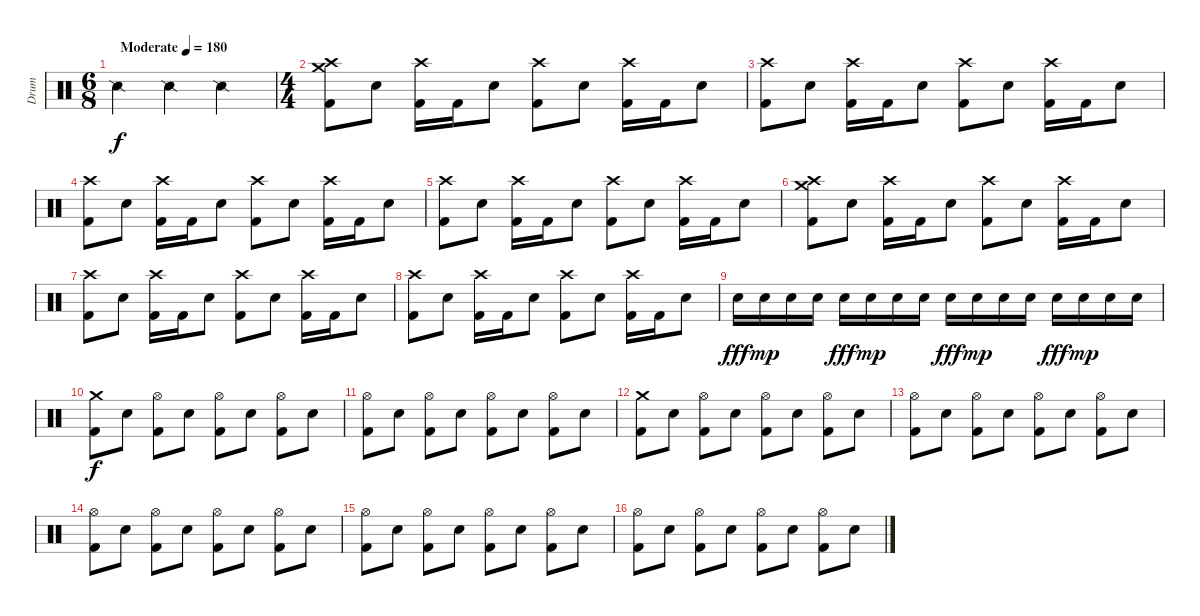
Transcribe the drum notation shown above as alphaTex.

\track ("Drum" "Drum") {instrument percussion}
\staff {score}
\articulation defaults
\ts (6 8)
\tempo (180 "Moderate")
\clef neutral
\ks c "Snare (side stick) 2".4{dy f} "Snare (side stick) 2".4 "Snare (side stick) 2".4
|
\ts (4 4)
("Crash high (hit)" "Crash medium (hit)" "Kick (hit) 2").8 "Electric Snare (hit)".8 ("Crash high (hit)" "Kick (hit) 2").16 "Kick (hit) 2".16 "Electric Snare (hit)".8 ("Crash high (hit)" "Kick (hit) 2").8 "Electric Snare (hit)".8 ("Crash high (hit)" "Kick (hit) 2").16 "Kick (hit) 2".16 "Electric Snare (hit)".8 |
("Crash high (hit)" "Kick (hit) 2").8 "Electric Snare (hit)".8 ("Crash high (hit)" "Kick (hit) 2").16 "Kick (hit) 2".16 "Electric Snare (hit)".8 ("Crash high (hit)" "Kick (hit) 2").8 "Electric Snare (hit)".8 ("Crash high (hit)" "Kick (hit) 2").16 "Kick (hit) 2".16 "Electric Snare (hit)".8 |
("Crash high (hit)" "Kick (hit) 2").8 "Electric Snare (hit)".8 ("Crash high (hit)" "Kick (hit) 2").16 "Kick (hit) 2".16 "Electric Snare (hit)".8 ("Crash high (hit)" "Kick (hit) 2").8 "Electric Snare (hit)".8 ("Crash high (hit)" "Kick (hit) 2").16 "Kick (hit) 2".16 "Electric Snare (hit)".8 |
("Crash high (hit)" "Kick (hit) 2").8 "Electric Snare (hit)".8 ("Crash high (hit)" "Kick (hit) 2").16 "Kick (hit) 2".16 "Electric Snare (hit)".8 ("Crash high (hit)" "Kick (hit) 2").8 "Electric Snare (hit)".8 ("Crash high (hit)" "Kick (hit) 2").16 "Kick (hit) 2".16 "Electric Snare (hit)".8 |
("Crash high (hit)" "Crash medium (hit)" "Kick (hit) 2").8 "Electric Snare (hit)".8 ("Crash high (hit)" "Kick (hit) 2").16 "Kick (hit) 2".16 "Electric Snare (hit)".8 ("Crash high (hit)" "Kick (hit) 2").8 "Electric Snare (hit)".8 ("Crash high (hit)" "Kick (hit) 2").16 "Kick (hit) 2".16 "Electric Snare (hit)".8 |
("Crash high (hit)" "Kick (hit) 2").8 "Electric Snare (hit)".8 ("Crash high (hit)" "Kick (hit) 2").16 "Kick (hit) 2".16 "Electric Snare (hit)".8 ("Crash high (hit)" "Kick (hit) 2").8 "Electric Snare (hit)".8 ("Crash high (hit)" "Kick (hit) 2").16 "Kick (hit) 2".16 "Electric Snare (hit)".8 |
("Crash high (hit)" "Kick (hit) 2").8 "Electric Snare (hit)".8 ("Crash high (hit)" "Kick (hit) 2").16 "Kick (hit) 2".16 "Electric Snare (hit)".8 ("Crash high (hit)" "Kick (hit) 2").8 "Electric Snare (hit)".8 ("Crash high (hit)" "Kick (hit) 2").16 "Kick (hit) 2".16 "Electric Snare (hit)".8 |
"Electric Snare (hit)".16{dy fff} "Electric Snare (hit)".16{dy mp} "Electric Snare (hit)".16 "Electric Snare (hit)".16 "Electric Snare (hit)".16{dy fff} "Electric Snare (hit)".16{dy mp} "Electric Snare (hit)".16 "Electric Snare (hit)".16 "Electric Snare (hit)".16{dy fff} "Electric Snare (hit)".16{dy mp} "Electric Snare (hit)".16 "Electric Snare (hit)".16 "Electric Snare (hit)".16{dy fff} "Electric Snare (hit)".16{dy mp} "Electric Snare (hit)".16 "Electric Snare (hit)".16 |
("Crash medium (hit)" "Kick (hit) 2").8{dy f} "Electric Snare (hit)".8 ("Hi-Hat (open)" "Kick (hit) 2").8 "Electric Snare (hit)".8 ("Hi-Hat (open)" "Kick (hit) 2").8 "Electric Snare (hit)".8 ("Hi-Hat (open)" "Kick (hit) 2").8 "Electric Snare (hit)".8 |
("Hi-Hat (open)" "Kick (hit) 2").8 "Electric Snare (hit)".8 ("Hi-Hat (open)" "Kick (hit) 2").8 "Electric Snare (hit)".8 ("Hi-Hat (open)" "Kick (hit) 2").8 "Electric Snare (hit)".8 ("Hi-Hat (open)" "Kick (hit) 2").8 "Electric Snare (hit)".8 |
("Crash medium (hit)" "Kick (hit) 2").8 "Electric Snare (hit)".8 ("Hi-Hat (open)" "Kick (hit) 2").8 "Electric Snare (hit)".8 ("Hi-Hat (open)" "Kick (hit) 2").8 "Electric Snare (hit)".8 ("Hi-Hat (open)" "Kick (hit) 2").8 "Electric Snare (hit)".8 |
("Hi-Hat (open)" "Kick (hit) 2").8 "Electric Snare (hit)".8 ("Hi-Hat (open)" "Kick (hit) 2").8 "Electric Snare (hit)".8 ("Hi-Hat (open)" "Kick (hit) 2").8 "Electric Snare (hit)".8 ("Hi-Hat (open)" "Kick (hit) 2").8 "Electric Snare (hit)".8 |
("Hi-Hat (open)" "Kick (hit) 2").8 "Electric Snare (hit)".8 ("Hi-Hat (open)" "Kick (hit) 2").8 "Electric Snare (hit)".8 ("Hi-Hat (open)" "Kick (hit) 2").8 "Electric Snare (hit)".8 ("Hi-Hat (open)" "Kick (hit) 2").8 "Electric Snare (hit)".8 |
("Hi-Hat (open)" "Kick (hit) 2").8 "Electric Snare (hit)".8 ("Hi-Hat (open)" "Kick (hit) 2").8 "Electric Snare (hit)".8 ("Hi-Hat (open)" "Kick (hit) 2").8 "Electric Snare (hit)".8 ("Hi-Hat (open)" "Kick (hit) 2").8 "Electric Snare (hit)".8 |
("Hi-Hat (open)" "Kick (hit) 2").8 "Electric Snare (hit)".8 ("Hi-Hat (open)" "Kick (hit) 2").8 "Electric Snare (hit)".8 ("Hi-Hat (open)" "Kick (hit) 2").8 "Electric Snare (hit)".8 ("Hi-Hat (open)" "Kick (hit) 2").8 "Electric Snare (hit)".8
